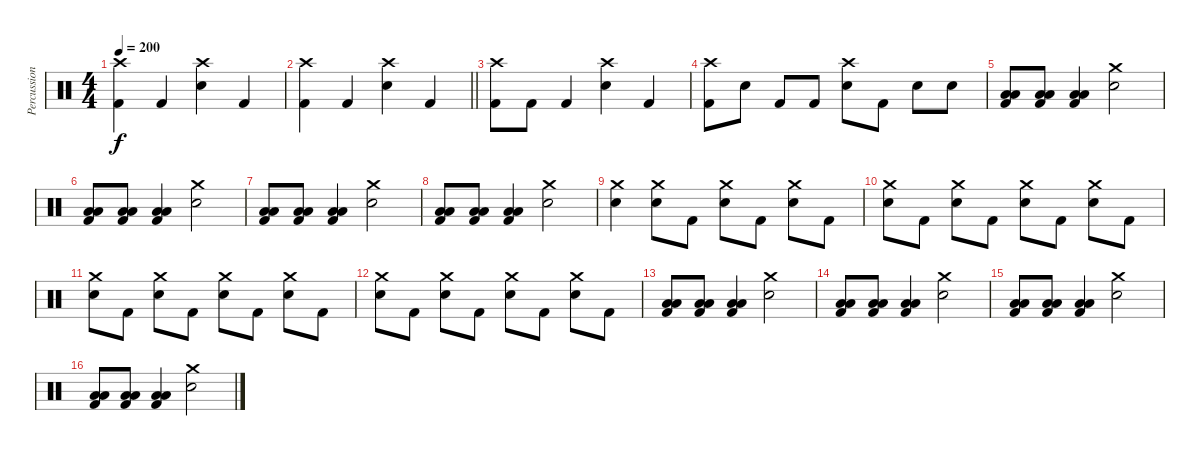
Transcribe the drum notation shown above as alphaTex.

\track ("Percussion" "Percussion") {instrument percussion}
\staff {score}
\articulation defaults
\ts (4 4)
\tempo 200
\clef neutral
\ks c
("Crash high (hit)" "Kick (hit) 2").4{dy f} "Kick (hit) 2".4 ("Crash high (hit)" "Snare (hit) 2").4 "Kick (hit) 2".4 |
\barLineRight lightlight
("Crash high (hit)" "Kick (hit) 2").4 "Kick (hit) 2".4 ("Crash high (hit)" "Snare (hit) 2").4 "Kick (hit) 2".4 |
("Crash high (hit)" "Kick (hit) 2").8 "Kick (hit) 2".8 "Kick (hit) 2".4 ("Crash high (hit)" "Snare (hit) 2").4 "Kick (hit) 2".4 |
("Crash high (hit)" "Kick (hit) 2").8 "Snare (hit) 2".8 "Kick (hit) 2".8 "Kick (hit) 2".8 ("Crash high (hit)" "Snare (hit) 2").8 "Kick (hit) 2".8 "Snare (hit) 2".8 "Snare (hit) 2".8 |
("Low Floor Tom (hit)" "Low Tom (hit)" "Kick (hit) 2").8 ("Low Floor Tom (hit)" "Low Tom (hit)" "Kick (hit) 2").8 ("Low Floor Tom (hit)" "Low Tom (hit)" "Kick (hit) 2").4 ("Crash medium (hit)" "Snare (hit) 2").2 |
("Low Floor Tom (hit)" "Low Tom (hit)" "Kick (hit) 2").8 ("Low Floor Tom (hit)" "Low Tom (hit)" "Kick (hit) 2").8 ("Low Floor Tom (hit)" "Low Tom (hit)" "Kick (hit) 2").4 ("Crash medium (hit)" "Snare (hit) 2").2 |
("Low Floor Tom (hit)" "Low Tom (hit)" "Kick (hit) 2").8 ("Low Floor Tom (hit)" "Low Tom (hit)" "Kick (hit) 2").8 ("Low Floor Tom (hit)" "Low Tom (hit)" "Kick (hit) 2").4 ("Crash medium (hit)" "Snare (hit) 2").2 |
("Low Floor Tom (hit)" "Low Tom (hit)" "Kick (hit) 2").8 ("Low Floor Tom (hit)" "Low Tom (hit)" "Kick (hit) 2").8 ("Low Floor Tom (hit)" "Low Tom (hit)" "Kick (hit) 2").4 ("Crash medium (hit)" "Snare (hit) 2").2 |
("Crash medium (hit)" "Snare (hit) 2").4 ("Crash medium (hit)" "Snare (hit) 2").8 "Kick (hit) 2".8 ("Crash medium (hit)" "Snare (hit) 2").8 "Kick (hit) 2".8 ("Crash medium (hit)" "Snare (hit) 2").8 "Kick (hit) 2".8 |
("Crash medium (hit)" "Snare (hit) 2").8 "Kick (hit) 2".8 ("Crash medium (hit)" "Snare (hit) 2").8 "Kick (hit) 2".8 ("Crash medium (hit)" "Snare (hit) 2").8 "Kick (hit) 2".8 ("Crash medium (hit)" "Snare (hit) 2").8 "Kick (hit) 2".8 |
("Crash medium (hit)" "Snare (hit) 2").8 "Kick (hit) 2".8 ("Crash medium (hit)" "Snare (hit) 2").8 "Kick (hit) 2".8 ("Crash medium (hit)" "Snare (hit) 2").8 "Kick (hit) 2".8 ("Crash medium (hit)" "Snare (hit) 2").8 "Kick (hit) 2".8 |
("Crash medium (hit)" "Snare (hit) 2").8 "Kick (hit) 2".8 ("Crash medium (hit)" "Snare (hit) 2").8 "Kick (hit) 2".8 ("Crash medium (hit)" "Snare (hit) 2").8 "Kick (hit) 2".8 ("Crash medium (hit)" "Snare (hit) 2").8 "Kick (hit) 2".8 |
("Low Floor Tom (hit)" "Low Tom (hit)" "Kick (hit) 2").8 ("Low Floor Tom (hit)" "Low Tom (hit)" "Kick (hit) 2").8 ("Low Floor Tom (hit)" "Low Tom (hit)" "Kick (hit) 2").4 ("Crash medium (hit)" "Snare (hit) 2").2 |
("Low Floor Tom (hit)" "Low Tom (hit)" "Kick (hit) 2").8 ("Low Floor Tom (hit)" "Low Tom (hit)" "Kick (hit) 2").8 ("Low Floor Tom (hit)" "Low Tom (hit)" "Kick (hit) 2").4 ("Crash medium (hit)" "Snare (hit) 2").2 |
("Low Floor Tom (hit)" "Low Tom (hit)" "Kick (hit) 2").8 ("Low Floor Tom (hit)" "Low Tom (hit)" "Kick (hit) 2").8 ("Low Floor Tom (hit)" "Low Tom (hit)" "Kick (hit) 2").4 ("Crash medium (hit)" "Snare (hit) 2").2 |
("Low Floor Tom (hit)" "Low Tom (hit)" "Kick (hit) 2").8 ("Low Floor Tom (hit)" "Low Tom (hit)" "Kick (hit) 2").8 ("Low Floor Tom (hit)" "Low Tom (hit)" "Kick (hit) 2").4 ("Crash medium (hit)" "Snare (hit) 2").2
